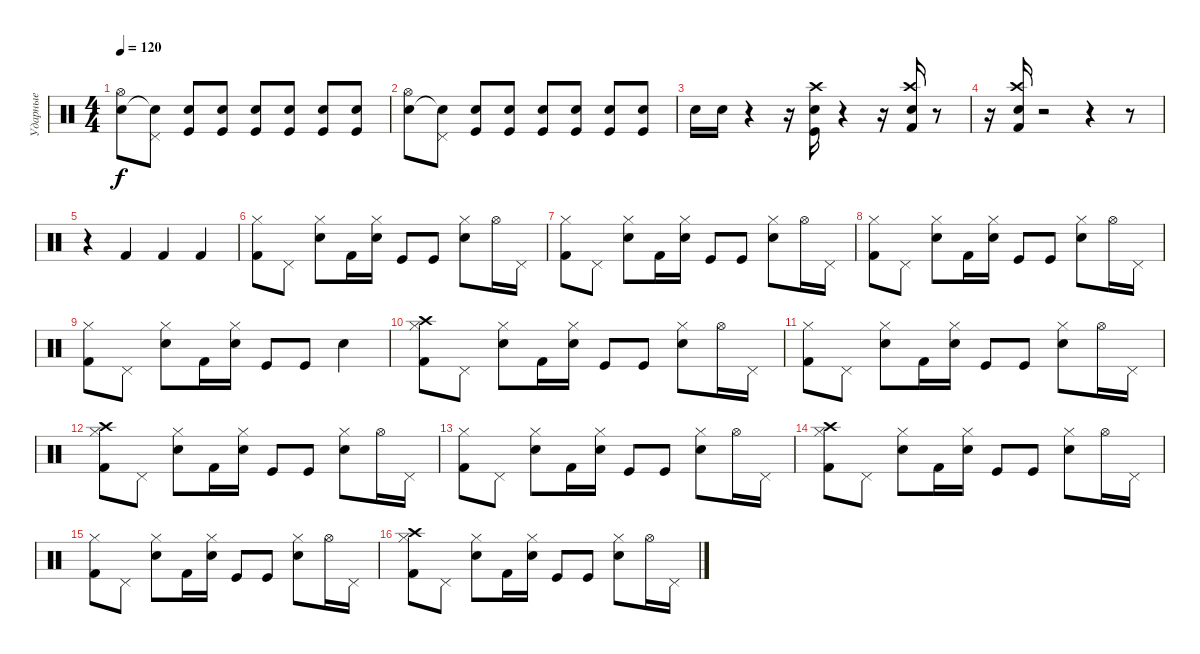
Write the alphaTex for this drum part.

\track ("Ударные" "Ударные") {instrument percussion}
\staff {score}
\articulation defaults
\ts (4 4)
\tempo 120
\clef neutral
\ks c
("Hi-Hat (open)" "Electric Snare (hit)").8{dy f volume 13} ("Pedal Hi-Hat (hit)" "Snare (hit)"{t}).8 ("Electric Snare (hit)" "Kick (hit)").8{volume 11} ("Electric Snare (hit)" "Kick (hit)").8{volume 9} ("Electric Snare (hit)" "Kick (hit)").8{volume 8} ("Electric Snare (hit)" "Kick (hit)").8{volume 7} ("Electric Snare (hit)" "Kick (hit)").8{volume 6} ("Electric Snare (hit)" "Kick (hit)").8{volume 5} |
("Hi-Hat (open)" "Electric Snare (hit)").8{volume 13} ("Pedal Hi-Hat (hit)" "Snare (hit)"{t}).8 ("Electric Snare (hit)" "Kick (hit)").8{volume 11} ("Electric Snare (hit)" "Kick (hit)").8{volume 9} ("Electric Snare (hit)" "Kick (hit)").8{volume 8} ("Electric Snare (hit)" "Kick (hit)").8{volume 7} ("Electric Snare (hit)" "Kick (hit)").8{volume 6} ("Electric Snare (hit)" "Kick (hit)").8{volume 5} |
"Electric Snare (hit)".16{volume 13} "Electric Snare (hit)".16 r.4 r.16 ("Crash high (hit)" "Electric Snare (hit)" "Kick (hit)").16 r.4 r.16 ("Crash high (hit)" "Electric Snare (hit)" "Kick (hit) 2").16 r.8 |
r.16 ("Crash high (hit)" "Electric Snare (hit)" "Kick (hit) 2").16 r.2 r.4 r.8 |
r.4 "Kick (hit) 2".4 "Kick (hit) 2".4 "Kick (hit) 2".4 |
("Hi-Hat (closed)" "Kick (hit) 2").8 "Pedal Hi-Hat (hit)".8 ("Hi-Hat (closed)" "Electric Snare (hit)").8 "Kick (hit) 2".16 ("Hi-Hat (closed)" "Electric Snare (hit)").16 "Kick (hit)".8 "Kick (hit)".8 ("Hi-Hat (closed)" "Electric Snare (hit)").8 "Hi-Hat (open)".16 "Pedal Hi-Hat (hit)".16 |
("Hi-Hat (closed)" "Kick (hit) 2").8 "Pedal Hi-Hat (hit)".8 ("Hi-Hat (closed)" "Electric Snare (hit)").8 "Kick (hit) 2".16 ("Hi-Hat (closed)" "Electric Snare (hit)").16 "Kick (hit)".8 "Kick (hit)".8 ("Hi-Hat (closed)" "Electric Snare (hit)").8 "Hi-Hat (open)".16 "Pedal Hi-Hat (hit)".16 |
("Hi-Hat (closed)" "Kick (hit) 2").8 "Pedal Hi-Hat (hit)".8 ("Hi-Hat (closed)" "Electric Snare (hit)").8 "Kick (hit) 2".16 ("Hi-Hat (closed)" "Electric Snare (hit)").16 "Kick (hit)".8 "Kick (hit)".8 ("Hi-Hat (closed)" "Electric Snare (hit)").8 "Hi-Hat (open)".16 "Pedal Hi-Hat (hit)".16 |
("Hi-Hat (closed)" "Kick (hit) 2").8 "Pedal Hi-Hat (hit)".8 ("Hi-Hat (closed)" "Electric Snare (hit)").8 "Kick (hit) 2".16 ("Hi-Hat (closed)" "Electric Snare (hit)").16 "Kick (hit)".8 "Kick (hit)".8 "Electric Snare (hit)".4 |
("Crash high (hit)" "Hi-Hat (closed)" "Kick (hit) 2").8 "Pedal Hi-Hat (hit)".8 ("Hi-Hat (closed)" "Electric Snare (hit)").8 "Kick (hit) 2".16 ("Hi-Hat (closed)" "Electric Snare (hit)").16 "Kick (hit)".8 "Kick (hit)".8 ("Hi-Hat (closed)" "Electric Snare (hit)").8 "Hi-Hat (open)".16 "Pedal Hi-Hat (hit)".16 |
("Hi-Hat (closed)" "Kick (hit) 2").8 "Pedal Hi-Hat (hit)".8 ("Hi-Hat (closed)" "Electric Snare (hit)").8 "Kick (hit) 2".16 ("Hi-Hat (closed)" "Electric Snare (hit)").16 "Kick (hit)".8 "Kick (hit)".8 ("Hi-Hat (closed)" "Electric Snare (hit)").8 "Hi-Hat (open)".16 "Pedal Hi-Hat (hit)".16 |
("Crash high (hit)" "Hi-Hat (closed)" "Kick (hit) 2").8 "Pedal Hi-Hat (hit)".8 ("Hi-Hat (closed)" "Electric Snare (hit)").8 "Kick (hit) 2".16 ("Hi-Hat (closed)" "Electric Snare (hit)").16 "Kick (hit)".8 "Kick (hit)".8 ("Hi-Hat (closed)" "Electric Snare (hit)").8 "Hi-Hat (open)".16 "Pedal Hi-Hat (hit)".16 |
("Hi-Hat (closed)" "Kick (hit) 2").8 "Pedal Hi-Hat (hit)".8 ("Hi-Hat (closed)" "Electric Snare (hit)").8 "Kick (hit) 2".16 ("Hi-Hat (closed)" "Electric Snare (hit)").16 "Kick (hit)".8 "Kick (hit)".8 ("Hi-Hat (closed)" "Electric Snare (hit)").8 "Hi-Hat (open)".16 "Pedal Hi-Hat (hit)".16 |
("Crash high (hit)" "Hi-Hat (closed)" "Kick (hit) 2").8 "Pedal Hi-Hat (hit)".8 ("Hi-Hat (closed)" "Electric Snare (hit)").8 "Kick (hit) 2".16 ("Hi-Hat (closed)" "Electric Snare (hit)").16 "Kick (hit)".8 "Kick (hit)".8 ("Hi-Hat (closed)" "Electric Snare (hit)").8 "Hi-Hat (open)".16 "Pedal Hi-Hat (hit)".16 |
("Hi-Hat (closed)" "Kick (hit) 2").8 "Pedal Hi-Hat (hit)".8 ("Hi-Hat (closed)" "Electric Snare (hit)").8 "Kick (hit) 2".16 ("Hi-Hat (closed)" "Electric Snare (hit)").16 "Kick (hit)".8 "Kick (hit)".8 ("Hi-Hat (closed)" "Electric Snare (hit)").8 "Hi-Hat (open)".16 "Pedal Hi-Hat (hit)".16 |
("Crash high (hit)" "Hi-Hat (closed)" "Kick (hit) 2").8 "Pedal Hi-Hat (hit)".8 ("Hi-Hat (closed)" "Electric Snare (hit)").8 "Kick (hit) 2".16 ("Hi-Hat (closed)" "Electric Snare (hit)").16 "Kick (hit)".8 "Kick (hit)".8 ("Hi-Hat (closed)" "Electric Snare (hit)").8 "Hi-Hat (open)".16 "Pedal Hi-Hat (hit)".16
